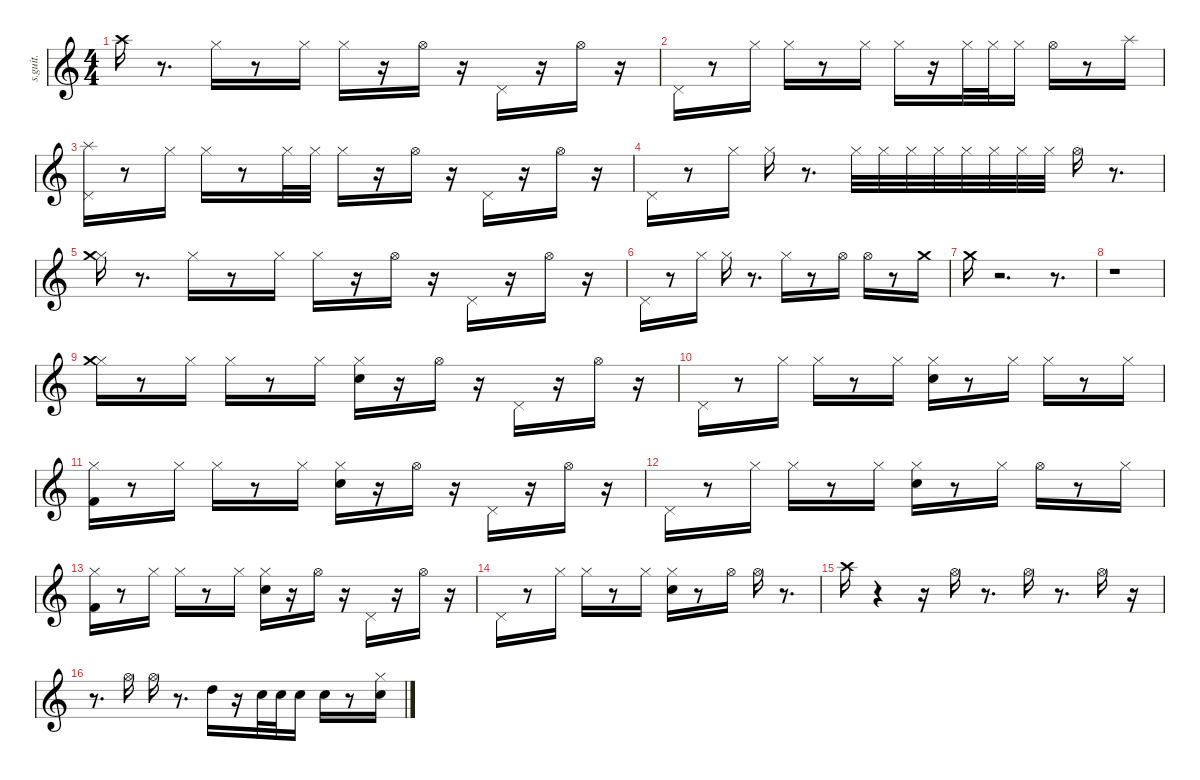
\defaultSystemsLayout 4
\hideDynamics
\bracketExtendMode nobrackets
\track ("Drums" "s.guit.") {instrument percussion}
\staff {score}
\articulation defaults
\ts (4 4)
\beaming (8 2 2 2 2)
\tempo (130 hide)
\clef g2
\ks c "Crash high (hit)".16{dy f}
r.8{d} "Hi-Hat (closed)".16 r.8 "Hi-Hat (closed)".16{dy mp} "Hi-Hat (closed)".16{dy p} r.16 "Hi-Hat (open)".16{dy f} r.16 "Pedal Hi-Hat (hit)".16 r.16 "Hi-Hat (open)".16 r.16 |
"Pedal Hi-Hat (hit)".16 r.8 "Hi-Hat (closed)".16 "Hi-Hat (closed)".16 r.8 "Hi-Hat (closed)".16{dy mp} "Hi-Hat (closed)".16{dy f} r.16 "Hi-Hat (closed)".32{dy mp} "Hi-Hat (closed)".32{dy mf} "Hi-Hat (closed)".16{dy f} "Hi-Hat (open)".16 r.8 "Splash (hit)".16 |
("Pedal Hi-Hat (hit)" "Splash (hit)").16 r.8 "Hi-Hat (closed)".16 "Hi-Hat (closed)".16 r.8 "Hi-Hat (closed)".32{dy mp} "Hi-Hat (closed)".32{dy mf} "Hi-Hat (closed)".16{dy f} r.16 "Hi-Hat (open)".16 r.16 "Pedal Hi-Hat (hit)".16 r.16 "Hi-Hat (open)".16 r.16 |
"Pedal Hi-Hat (hit)".16 r.8 "Hi-Hat (closed)".16 "Hi-Hat (closed)".16{dy ff} r.8{d} "Hi-Hat (closed)".32{dy mp} "Hi-Hat (closed)".32{dy mf} "Hi-Hat (closed)".32{dy mp} "Hi-Hat (closed)".32{dy mf} "Hi-Hat (closed)".32{dy mp} "Hi-Hat (closed)".32{dy mf} "Hi-Hat (closed)".32{dy mp} "Hi-Hat (closed)".32{dy mf} "Hi-Hat (open)".16{dy ff} r.8{d} |
("Hi-Hat (closed)" "Crash medium (hit)").16{dy f} r.8{d} "Hi-Hat (closed)".16 r.8 "Hi-Hat (closed)".16{dy mp} "Hi-Hat (closed)".16{dy p} r.16 "Hi-Hat (open)".16{dy f} r.16 "Pedal Hi-Hat (hit)".16 r.16 "Hi-Hat (open)".16 r.16 |
"Pedal Hi-Hat (hit)".16 r.8 "Hi-Hat (closed)".16 "Hi-Hat (closed)".16 r.8{d} "Hi-Hat (closed)".16{dy ff} r.8 "Hi-Hat (open)".16{dy f} "Hi-Hat (open)".16{dy fff} r.8 "Crash medium (hit)".16{dy mf} |
"Crash medium (hit)".16{dy fff} r.2{d} r.8{d} |
r.1 |
("Hi-Hat (closed)" "Crash medium (hit)").16{dy ff} r.8 "Hi-Hat (closed)".16{dy mp} "Hi-Hat (closed)".16{dy ff} r.8 "Hi-Hat (closed)".16{dy mf} ("Hi-Hat (closed)" "Electric Snare (hit)").16{dy ff} r.16 "Hi-Hat (open)".16{dy f} r.16 "Pedal Hi-Hat (hit)".16 r.16 "Hi-Hat (open)".16 r.16 |
"Pedal Hi-Hat (hit)".16 r.8 "Hi-Hat (closed)".16{dy mf} "Hi-Hat (closed)".16{dy ff} r.8 "Hi-Hat (closed)".16{dy mf} ("Hi-Hat (closed)" "Electric Snare (hit)").16{dy ff} r.8 "Hi-Hat (closed)".16{dy mf} "Hi-Hat (closed)".16{dy ff} r.8 "Hi-Hat (closed)".16{dy mp} |
("Hi-Hat (closed)" "Kick (hit) 2").16{dy ff} r.8 "Hi-Hat (closed)".16{dy mp} "Hi-Hat (closed)".16{dy ff} r.8 "Hi-Hat (closed)".16{dy mp} ("Hi-Hat (closed)" "Electric Snare (hit)").16{dy ff} r.16 "Hi-Hat (open)".16{dy f} r.16 "Pedal Hi-Hat (hit)".16 r.16 "Hi-Hat (open)".16 r.16 |
"Pedal Hi-Hat (hit)".16 r.8 "Hi-Hat (closed)".16{dy mp} "Hi-Hat (closed)".16{dy ff} r.8 "Hi-Hat (closed)".16{dy mp} ("Hi-Hat (closed)" "Electric Snare (hit)").16{dy ff} r.8 "Hi-Hat (closed)".16{dy f} "Hi-Hat (open)".16{dy ff} r.8 "Hi-Hat (closed)".16{dy mp} |
("Hi-Hat (closed)" "Kick (hit) 2").16{dy ff} r.8 "Hi-Hat (closed)".16{dy mp} "Hi-Hat (closed)".16{dy ff} r.8 "Hi-Hat (closed)".16{dy mp} ("Hi-Hat (closed)" "Electric Snare (hit)").16{dy ff} r.16 "Hi-Hat (open)".16{dy f} r.16 "Pedal Hi-Hat (hit)".16 r.16 "Hi-Hat (open)".16 r.16 |
"Pedal Hi-Hat (hit)".16 r.8 "Hi-Hat (closed)".16{dy mp} "Hi-Hat (closed)".16{dy ff} r.8 "Hi-Hat (closed)".16{dy mp} ("Hi-Hat (closed)" "Electric Snare (hit)").16{dy ff} r.8 "Hi-Hat (open)".16{dy mp} "Hi-Hat (open)".16{dy ff} r.8{d} |
"Crash high (hit)".16{dy f} r.4 r.16 "Hi-Hat (open)".16 r.8{d} "Hi-Hat (open)".16 r.8{d} "Hi-Hat (open)".16 r.16 |
r.8{d} "Hi-Hat (open)".16{dy mf} "Hi-Hat (open)".16{dy f} r.8{d} "High Tom (hit)".16{dy mf} r.16 "Electric Snare (hit)".32{dy p} "Electric Snare (hit)".32{dy mp} "Electric Snare (hit)".16{dy mf} "Electric Snare (hit)".16{dy fff} r.8 ("Hi-Hat (closed)" "Electric Snare (hit)").16{dy mf}
